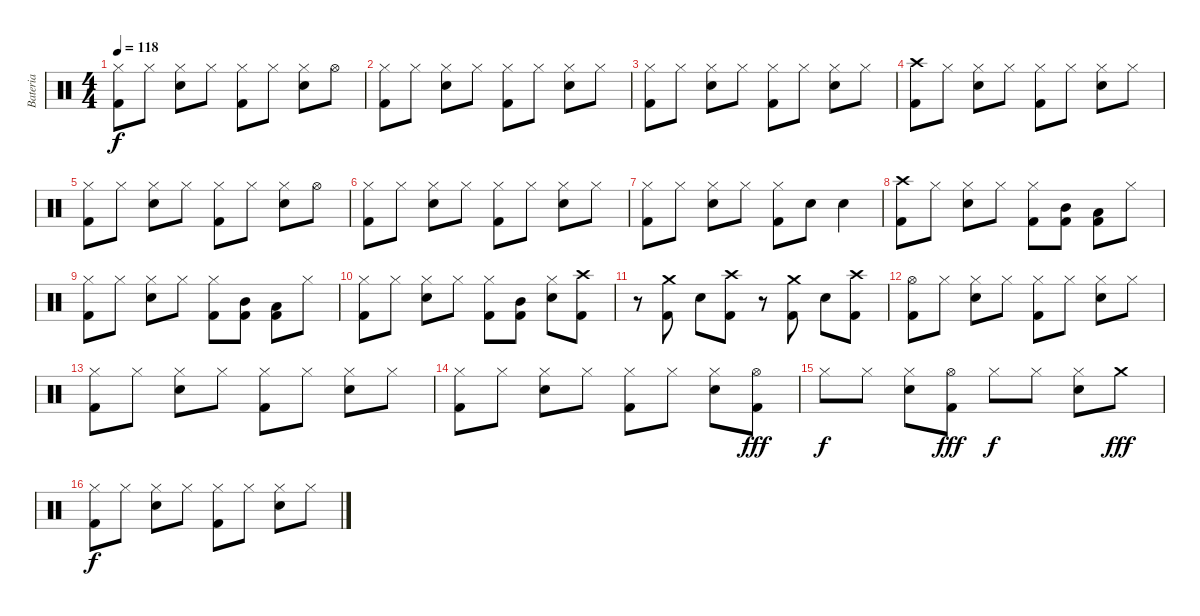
\track ("Bateria" "Bateria") {instrument percussion}
\staff {score}
\articulation defaults
\ts (4 4)
\tempo 118
\clef neutral
\ks c
("Kick (hit) 2" "Hi-Hat (closed)").8{dy f} "Hi-Hat (closed)".8 ("Electric Snare (hit)" "Hi-Hat (closed)").8 "Hi-Hat (closed)".8 ("Kick (hit) 2" "Hi-Hat (closed)").8 "Hi-Hat (closed)".8 ("Electric Snare (hit)" "Hi-Hat (closed)").8 "Hi-Hat (open)".8 |
("Kick (hit) 2" "Hi-Hat (closed)").8 "Hi-Hat (closed)".8 ("Electric Snare (hit)" "Hi-Hat (closed)").8 "Hi-Hat (closed)".8 ("Kick (hit) 2" "Hi-Hat (closed)").8 "Hi-Hat (closed)".8 ("Electric Snare (hit)" "Hi-Hat (closed)").8 "Hi-Hat (closed)".8 |
("Kick (hit) 2" "Hi-Hat (closed)").8 "Hi-Hat (closed)".8 ("Electric Snare (hit)" "Hi-Hat (closed)").8 "Hi-Hat (closed)".8 ("Kick (hit) 2" "Hi-Hat (closed)").8 "Hi-Hat (closed)".8 ("Electric Snare (hit)" "Hi-Hat (closed)").8 "Hi-Hat (closed)".8 |
("Kick (hit) 2" "Crash high (hit)").8 "Hi-Hat (closed)".8 ("Electric Snare (hit)" "Hi-Hat (closed)").8 "Hi-Hat (closed)".8 ("Kick (hit) 2" "Hi-Hat (closed)").8 "Hi-Hat (closed)".8 ("Electric Snare (hit)" "Hi-Hat (closed)").8 "Hi-Hat (closed)".8 |
("Kick (hit) 2" "Hi-Hat (closed)").8 "Hi-Hat (closed)".8 ("Electric Snare (hit)" "Hi-Hat (closed)").8 "Hi-Hat (closed)".8 ("Kick (hit) 2" "Hi-Hat (closed)").8 "Hi-Hat (closed)".8 ("Electric Snare (hit)" "Hi-Hat (closed)").8 "Hi-Hat (open)".8 |
("Kick (hit) 2" "Hi-Hat (closed)").8 "Hi-Hat (closed)".8 ("Electric Snare (hit)" "Hi-Hat (closed)").8 "Hi-Hat (closed)".8 ("Kick (hit) 2" "Hi-Hat (closed)").8 "Hi-Hat (closed)".8 ("Electric Snare (hit)" "Hi-Hat (closed)").8 "Hi-Hat (closed)".8 |
("Kick (hit) 2" "Hi-Hat (closed)").8 "Hi-Hat (closed)".8 ("Electric Snare (hit)" "Hi-Hat (closed)").8 "Hi-Hat (closed)".8 ("Kick (hit) 2" "Hi-Hat (closed)").8 "Electric Snare (hit)".8 "Electric Snare (hit)".4 |
("Kick (hit) 2" "Crash high (hit)").8 "Hi-Hat (closed)".8 ("Hi-Hat (closed)" "Electric Snare (hit)").8 "Hi-Hat (closed)".8 ("Hi-Hat (closed)" "Kick (hit) 2").8 ("Mid Tom (hit)" "Kick (hit) 2").8 ("Low Tom (hit)" "Kick (hit) 2").8 "Hi-Hat (closed)".8 |
("Hi-Hat (closed)" "Kick (hit) 2").8 "Hi-Hat (closed)".8 ("Hi-Hat (closed)" "Electric Snare (hit)").8 "Hi-Hat (closed)".8 ("Hi-Hat (closed)" "Kick (hit) 2").8 ("Mid Tom (hit)" "Kick (hit) 2").8 ("Low Tom (hit)" "Kick (hit) 2").8 "Hi-Hat (closed)".8 |
("Hi-Hat (closed)" "Kick (hit) 2").8 "Hi-Hat (closed)".8 ("Hi-Hat (closed)" "Electric Snare (hit)").8 "Hi-Hat (closed)".8 ("Hi-Hat (closed)" "Kick (hit) 2").8 ("Mid Tom (hit)" "Kick (hit) 2").8 ("Hi-Hat (closed)" "Electric Snare (hit)").8 ("Crash high (hit)" "Kick (hit) 2").8 |
r.8 ("Crash medium (hit)" "Kick (hit) 2").8 "Electric Snare (hit)".8 ("Crash high (hit)" "Kick (hit) 2").8 r.8 ("Crash medium (hit)" "Kick (hit) 2").8 "Electric Snare (hit)".8 ("Kick (hit) 2" "Crash high (hit)").8 |
("Kick (hit) 2" "Hi-Hat (open)").8 "Hi-Hat (closed)".8 ("Electric Snare (hit)" "Hi-Hat (closed)").8 "Hi-Hat (closed)".8 ("Kick (hit) 2" "Hi-Hat (closed)").8 "Hi-Hat (closed)".8 ("Electric Snare (hit)" "Hi-Hat (closed)").8 "Hi-Hat (closed)".8 |
("Kick (hit) 2" "Hi-Hat (closed)").8 "Hi-Hat (closed)".8 ("Electric Snare (hit)" "Hi-Hat (closed)").8 "Hi-Hat (closed)".8 ("Kick (hit) 2" "Hi-Hat (closed)").8 "Hi-Hat (closed)".8 ("Electric Snare (hit)" "Hi-Hat (closed)").8 "Hi-Hat (closed)".8 |
("Kick (hit) 2" "Hi-Hat (closed)").8 "Hi-Hat (closed)".8 ("Electric Snare (hit)" "Hi-Hat (closed)").8 "Hi-Hat (closed)".8 ("Kick (hit) 2" "Hi-Hat (closed)").8 "Hi-Hat (closed)".8 ("Electric Snare (hit)" "Hi-Hat (closed)").8 ("Kick (hit) 2" "Hi-Hat (open)").8{dy fff} |
"Hi-Hat (closed)".8{dy f} "Hi-Hat (closed)".8 ("Electric Snare (hit)" "Hi-Hat (closed)").8 ("Kick (hit) 2" "Hi-Hat (open)").8{dy fff} "Hi-Hat (closed)".8{dy f} "Hi-Hat (closed)".8 ("Electric Snare (hit)" "Hi-Hat (closed)").8 "Crash medium (hit)".8{dy fff} |
("Kick (hit) 2" "Hi-Hat (closed)").8{dy f} "Hi-Hat (closed)".8 ("Electric Snare (hit)" "Hi-Hat (closed)").8 "Hi-Hat (closed)".8 ("Kick (hit) 2" "Hi-Hat (closed)").8 "Hi-Hat (closed)".8 ("Electric Snare (hit)" "Hi-Hat (closed)").8 "Hi-Hat (closed)".8
